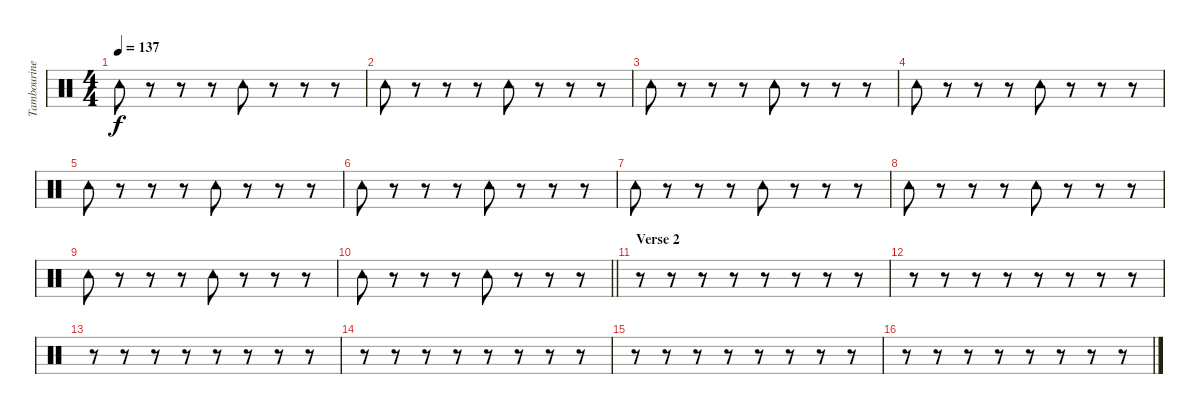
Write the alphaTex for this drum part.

\track ("Tambourine" "Tambourine") {instrument percussion}
\staff {score}
\articulation defaults
\ts (4 4)
\tempo 137
\clef neutral
\ks c "Tambourine (hit)".8{dy f}
r.8 r.8 r.8 "Tambourine (hit)".8 r.8 r.8 r.8 |
"Tambourine (hit)".8 r.8 r.8 r.8 "Tambourine (hit)".8 r.8 r.8 r.8 |
"Tambourine (hit)".8 r.8 r.8 r.8 "Tambourine (hit)".8 r.8 r.8 r.8 |
"Tambourine (hit)".8 r.8 r.8 r.8 "Tambourine (hit)".8 r.8 r.8 r.8 |
"Tambourine (hit)".8 r.8 r.8 r.8 "Tambourine (hit)".8 r.8 r.8 r.8 |
"Tambourine (hit)".8 r.8 r.8 r.8 "Tambourine (hit)".8 r.8 r.8 r.8 |
"Tambourine (hit)".8 r.8 r.8 r.8 "Tambourine (hit)".8 r.8 r.8 r.8 |
"Tambourine (hit)".8 r.8 r.8 r.8 "Tambourine (hit)".8 r.8 r.8 r.8 |
"Tambourine (hit)".8 r.8 r.8 r.8 "Tambourine (hit)".8 r.8 r.8 r.8 |
\barLineRight lightlight "Tambourine (hit)".8
r.8 r.8 r.8 "Tambourine (hit)".8 r.8 r.8 r.8 |
\section ("" "Verse 2")
r.8 r.8 r.8 r.8 r.8 r.8 r.8 r.8 |
r.8 r.8 r.8 r.8 r.8 r.8 r.8 r.8 |
r.8 r.8 r.8 r.8 r.8 r.8 r.8 r.8 |
r.8 r.8 r.8 r.8 r.8 r.8 r.8 r.8 |
r.8 r.8 r.8 r.8 r.8 r.8 r.8 r.8 |
r.8 r.8 r.8 r.8 r.8 r.8 r.8 r.8
